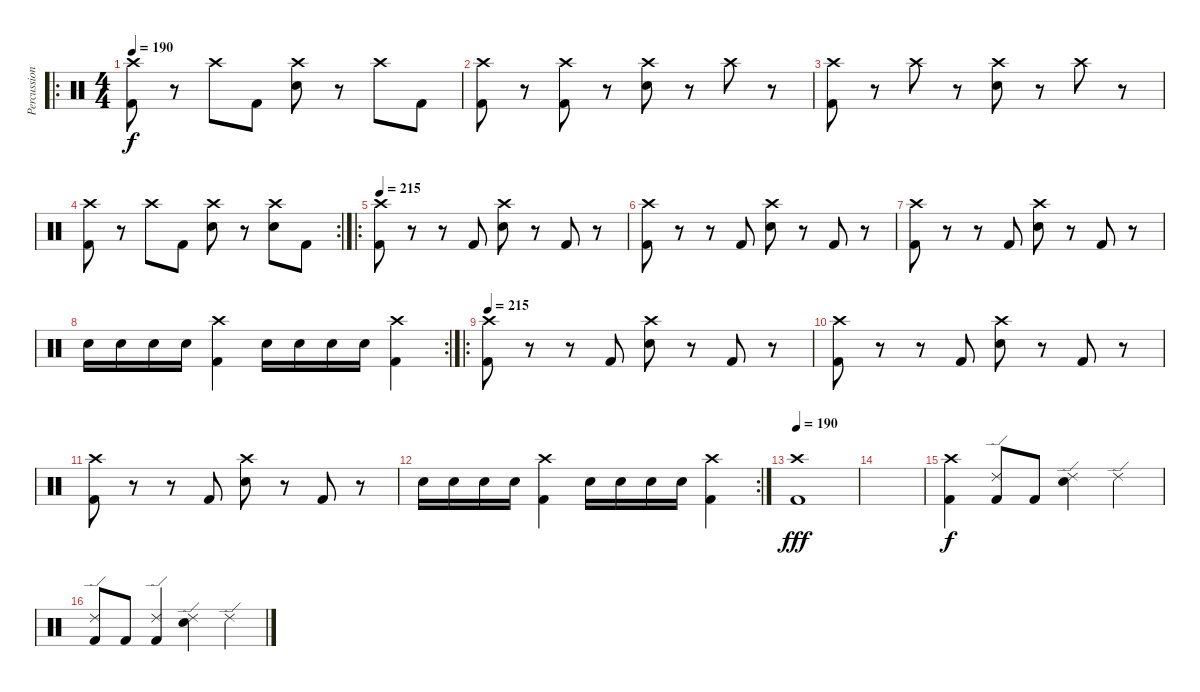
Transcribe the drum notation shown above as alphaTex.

\track ("Percussion" "Percussion") {instrument percussion}
\staff {score}
\articulation defaults
\ro
\ts (4 4)
\tempo 190
\clef neutral
\ks c
("Crash high (hit)" "Kick (hit) 2").8{dy f} r.8 "Crash high (hit)".8 "Kick (hit) 2".8 ("Crash high (hit)" "Snare (hit) 2").8 r.8 "Crash high (hit)".8 "Kick (hit) 2".8 |
("Crash high (hit)" "Kick (hit) 2").8 r.8 ("Crash high (hit)" "Kick (hit) 2").8 r.8 ("Crash high (hit)" "Snare (hit) 2").8 r.8 "Crash high (hit)".8 r.8 |
("Crash high (hit)" "Kick (hit) 2").8 r.8 "Crash high (hit)".8 r.8 ("Crash high (hit)" "Snare (hit) 2").8 r.8 "Crash high (hit)".8 r.8 |
\rc 2
("Crash high (hit)" "Kick (hit) 2").8 r.8 "Crash high (hit)".8 "Kick (hit) 2".8 ("Crash high (hit)" "Snare (hit) 2").8 r.8 ("Crash high (hit)" "Snare (hit) 2").8 "Kick (hit) 2".8 |
\ro
\tempo 215
("Crash high (hit)" "Kick (hit) 2").8 r.8 r.8 "Kick (hit) 2".8 ("Crash high (hit)" "Snare (hit) 2").8 r.8 "Kick (hit) 2".8 r.8 |
("Crash high (hit)" "Kick (hit) 2").8 r.8 r.8 "Kick (hit) 2".8 ("Crash high (hit)" "Snare (hit) 2").8 r.8 "Kick (hit) 2".8 r.8 |
("Crash high (hit)" "Kick (hit) 2").8 r.8 r.8 "Kick (hit) 2".8 ("Crash high (hit)" "Snare (hit) 2").8 r.8 "Kick (hit) 2".8 r.8 |
\rc 2 "Snare (hit) 2".16 "Snare (hit) 2".16 "Snare (hit) 2".16 "Snare (hit) 2".16
("Crash high (hit)" "Kick (hit) 2").4 "Snare (hit) 2".16 "Snare (hit) 2".16 "Snare (hit) 2".16 "Snare (hit) 2".16 ("Crash high (hit)" "Kick (hit) 2").4 |
\ro
\tempo 215
("Crash high (hit)" "Kick (hit) 2").8 r.8 r.8 "Kick (hit) 2".8 ("Crash high (hit)" "Snare (hit) 2").8 r.8 "Kick (hit) 2".8 r.8 |
("Crash high (hit)" "Kick (hit) 2").8 r.8 r.8 "Kick (hit) 2".8 ("Crash high (hit)" "Snare (hit) 2").8 r.8 "Kick (hit) 2".8 r.8 |
("Crash high (hit)" "Kick (hit) 2").8 r.8 r.8 "Kick (hit) 2".8 ("Crash high (hit)" "Snare (hit) 2").8 r.8 "Kick (hit) 2".8 r.8 |
\rc 2 "Snare (hit) 2".16 "Snare (hit) 2".16 "Snare (hit) 2".16 "Snare (hit) 2".16
("Crash high (hit)" "Kick (hit) 2").4 "Snare (hit) 2".16 "Snare (hit) 2".16 "Snare (hit) 2".16 "Snare (hit) 2".16 ("Crash high (hit)" "Kick (hit) 2").4 |
\tempo 190
("Crash high (hit)" "Kick (hit) 2").1{dy fff} |
|
("Crash high (hit)" "Kick (hit) 2").4{dy f} ("Ride (edge) 2" "Kick (hit) 2").8 "Kick (hit) 2".8 ("Ride (edge) 2" "Snare (hit) 2").4 "Ride (edge) 2".4 |
("Ride (edge) 2" "Kick (hit) 2").8 "Kick (hit) 2".8 ("Ride (edge) 2" "Kick (hit) 2").4 ("Ride (edge) 2" "Snare (hit) 2").4 "Ride (edge) 2".4
